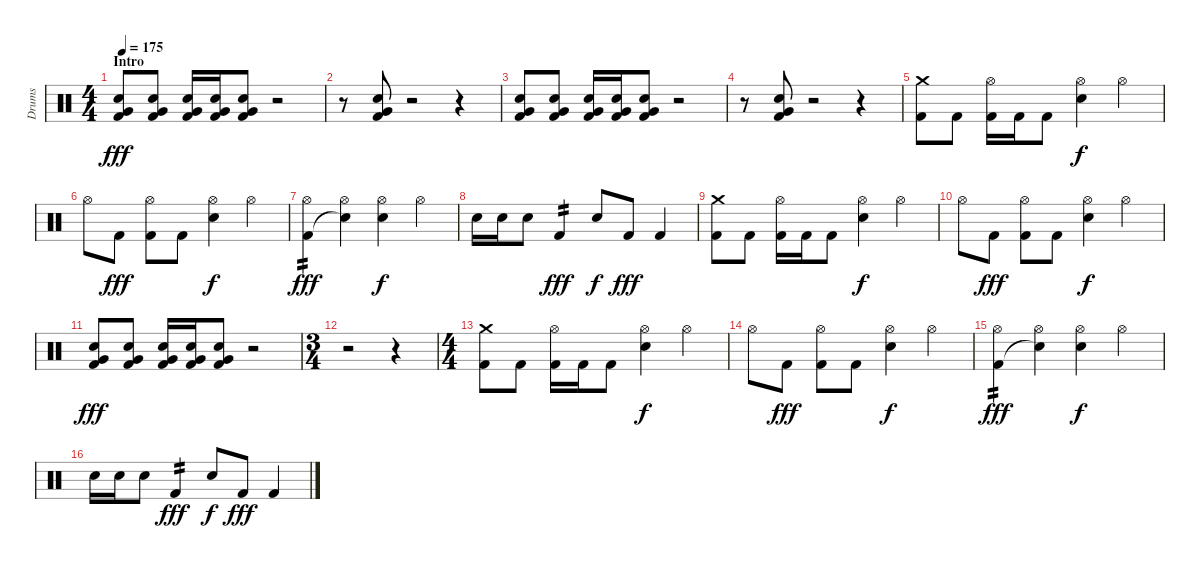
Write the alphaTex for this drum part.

\track ("Drums" "Drums") {instrument percussion}
\staff {score}
\articulation defaults
\ts (4 4)
\section ("" "Intro")
\tempo 175
\clef neutral
\ks c
("Very Low Tom (hit)" "Electric Snare (hit)" "Kick (hit) 2").8{dy fff} ("Very Low Tom (hit)" "Electric Snare (hit)" "Kick (hit) 2").8 ("Very Low Tom (hit)" "Electric Snare (hit)" "Kick (hit) 2").16 ("Very Low Tom (hit)" "Electric Snare (hit)" "Kick (hit) 2").16 ("Very Low Tom (hit)" "Electric Snare (hit)" "Kick (hit) 2").8 r.2 |
r.8 ("Very Low Tom (hit)" "Electric Snare (hit)" "Kick (hit) 2").8 r.2 r.4 |
("Very Low Tom (hit)" "Electric Snare (hit)" "Kick (hit) 2").8 ("Very Low Tom (hit)" "Electric Snare (hit)" "Kick (hit) 2").8 ("Very Low Tom (hit)" "Electric Snare (hit)" "Kick (hit) 2").16 ("Very Low Tom (hit)" "Electric Snare (hit)" "Kick (hit) 2").16 ("Very Low Tom (hit)" "Electric Snare (hit)" "Kick (hit) 2").8 r.2 |
r.8 ("Very Low Tom (hit)" "Electric Snare (hit)" "Kick (hit) 2").8 r.2 r.4 |
("Crash medium (hit)" "Kick (hit) 2").8 "Kick (hit) 2".8 ("Hi-Hat (open)" "Kick (hit) 2").16 "Kick (hit) 2".16 "Kick (hit) 2".8 ("Hi-Hat (open)" "Electric Snare (hit)").4{dy f} "Hi-Hat (open)".4 |
"Hi-Hat (open)".8 "Kick (hit) 2".8{dy fff} ("Hi-Hat (open)" "Kick (hit) 2").8 "Kick (hit) 2".8 ("Hi-Hat (open)" "Electric Snare (hit)").4{dy f} "Hi-Hat (open)".4 |
("Hi-Hat (open)" "Kick (hit) 2").4{tp 2 dy fff} ("Hi-Hat (open)" "Snare (hit)"{t}).4 ("Hi-Hat (open)" "Electric Snare (hit)").4{dy f} "Hi-Hat (open)".4 |
"Electric Snare (hit)".16 "Electric Snare (hit)".16 "Electric Snare (hit)".8 "Kick (hit) 2".4{tp 2 dy fff} "Electric Snare (hit)".8{dy f} "Kick (hit) 2".8{dy fff} "Kick (hit) 2".4 |
("Crash medium (hit)" "Kick (hit) 2").8 "Kick (hit) 2".8 ("Hi-Hat (open)" "Kick (hit) 2").16 "Kick (hit) 2".16 "Kick (hit) 2".8 ("Hi-Hat (open)" "Electric Snare (hit)").4{dy f} "Hi-Hat (open)".4 |
"Hi-Hat (open)".8 "Kick (hit) 2".8{dy fff} ("Hi-Hat (open)" "Kick (hit) 2").8 "Kick (hit) 2".8 ("Hi-Hat (open)" "Electric Snare (hit)").4{dy f} "Hi-Hat (open)".4 |
("Very Low Tom (hit)" "Electric Snare (hit)" "Kick (hit) 2").8{dy fff} ("Very Low Tom (hit)" "Electric Snare (hit)" "Kick (hit) 2").8 ("Very Low Tom (hit)" "Electric Snare (hit)" "Kick (hit) 2").16 ("Very Low Tom (hit)" "Electric Snare (hit)" "Kick (hit) 2").16 ("Very Low Tom (hit)" "Electric Snare (hit)" "Kick (hit) 2").8 r.2 |
\ts (3 4)
r.2 r.4 |
\ts (4 4)
("Crash medium (hit)" "Kick (hit) 2").8 "Kick (hit) 2".8 ("Hi-Hat (open)" "Kick (hit) 2").16 "Kick (hit) 2".16 "Kick (hit) 2".8 ("Hi-Hat (open)" "Electric Snare (hit)").4{dy f} "Hi-Hat (open)".4 |
"Hi-Hat (open)".8 "Kick (hit) 2".8{dy fff} ("Hi-Hat (open)" "Kick (hit) 2").8 "Kick (hit) 2".8 ("Hi-Hat (open)" "Electric Snare (hit)").4{dy f} "Hi-Hat (open)".4 |
("Hi-Hat (open)" "Kick (hit) 2").4{tp 2 dy fff} ("Hi-Hat (open)" "Snare (hit)"{t}).4 ("Hi-Hat (open)" "Electric Snare (hit)").4{dy f} "Hi-Hat (open)".4 |
"Electric Snare (hit)".16 "Electric Snare (hit)".16 "Electric Snare (hit)".8 "Kick (hit) 2".4{tp 2 dy fff} "Electric Snare (hit)".8{dy f} "Kick (hit) 2".8{dy fff} "Kick (hit) 2".4
